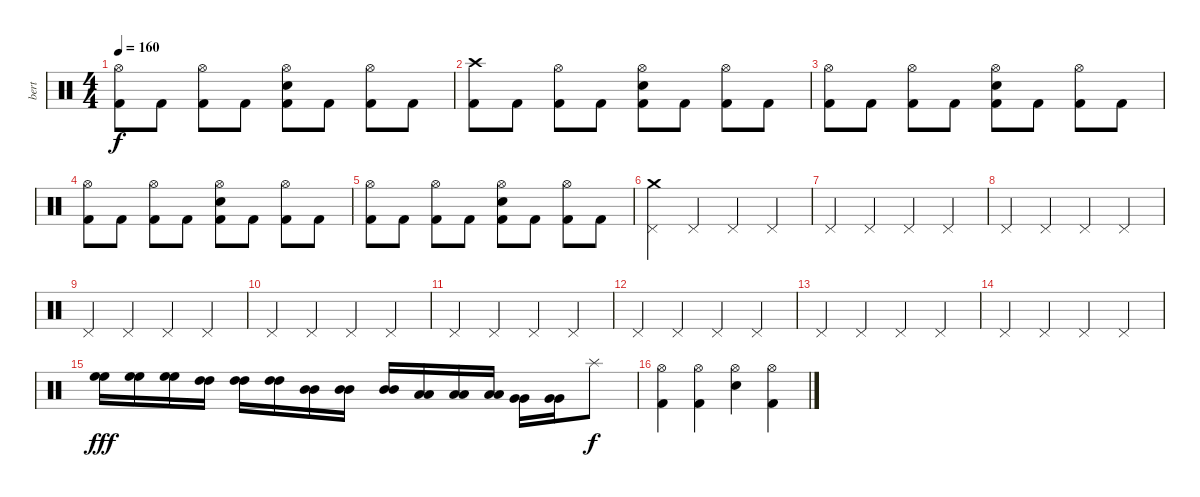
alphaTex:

\track ("bert" "bert") {instrument percussion}
\staff {score}
\articulation defaults
\ts (4 4)
\tempo 160
\clef neutral
\ks c
("Hi-Hat (open)" "Kick (hit) 2").8{dy f} "Kick (hit) 2".8 ("Hi-Hat (open)" "Kick (hit) 2").8 "Kick (hit) 2".8 ("Hi-Hat (open)" "Snare (hit) 2" "Kick (hit) 2").8 "Kick (hit) 2".8 ("Hi-Hat (open)" "Kick (hit) 2").8 "Kick (hit) 2".8 |
("Crash high (hit)" "Kick (hit) 2").8 "Kick (hit) 2".8 ("Hi-Hat (open)" "Kick (hit) 2").8 "Kick (hit) 2".8 ("Hi-Hat (open)" "Snare (hit) 2" "Kick (hit) 2").8 "Kick (hit) 2".8 ("Hi-Hat (open)" "Kick (hit) 2").8 "Kick (hit) 2".8 |
("Hi-Hat (open)" "Kick (hit) 2").8 "Kick (hit) 2".8 ("Hi-Hat (open)" "Kick (hit) 2").8 "Kick (hit) 2".8 ("Hi-Hat (open)" "Snare (hit) 2" "Kick (hit) 2").8 "Kick (hit) 2".8 ("Hi-Hat (open)" "Kick (hit) 2").8 "Kick (hit) 2".8 |
("Hi-Hat (open)" "Kick (hit) 2").8 "Kick (hit) 2".8 ("Hi-Hat (open)" "Kick (hit) 2").8 "Kick (hit) 2".8 ("Hi-Hat (open)" "Snare (hit) 2" "Kick (hit) 2").8 "Kick (hit) 2".8 ("Hi-Hat (open)" "Kick (hit) 2").8 "Kick (hit) 2".8 |
("Hi-Hat (open)" "Kick (hit) 2").8 "Kick (hit) 2".8 ("Hi-Hat (open)" "Kick (hit) 2").8 "Kick (hit) 2".8 ("Hi-Hat (open)" "Snare (hit) 2" "Kick (hit) 2").8 "Kick (hit) 2".8 ("Hi-Hat (open)" "Kick (hit) 2").8 "Kick (hit) 2".8 |
("Crash medium (hit)" "Pedal Hi-Hat (hit)").4 "Pedal Hi-Hat (hit)".4 "Pedal Hi-Hat (hit)".4 "Pedal Hi-Hat (hit)".4 |
"Pedal Hi-Hat (hit)".4 "Pedal Hi-Hat (hit)".4 "Pedal Hi-Hat (hit)".4 "Pedal Hi-Hat (hit)".4 |
"Pedal Hi-Hat (hit)".4 "Pedal Hi-Hat (hit)".4 "Pedal Hi-Hat (hit)".4 "Pedal Hi-Hat (hit)".4 |
"Pedal Hi-Hat (hit)".4 "Pedal Hi-Hat (hit)".4 "Pedal Hi-Hat (hit)".4 "Pedal Hi-Hat (hit)".4 |
"Pedal Hi-Hat (hit)".4 "Pedal Hi-Hat (hit)".4 "Pedal Hi-Hat (hit)".4 "Pedal Hi-Hat (hit)".4 |
"Pedal Hi-Hat (hit)".4 "Pedal Hi-Hat (hit)".4 "Pedal Hi-Hat (hit)".4 "Pedal Hi-Hat (hit)".4 |
"Pedal Hi-Hat (hit)".4 "Pedal Hi-Hat (hit)".4 "Pedal Hi-Hat (hit)".4 "Pedal Hi-Hat (hit)".4 |
"Pedal Hi-Hat (hit)".4 "Pedal Hi-Hat (hit)".4 "Pedal Hi-Hat (hit)".4 "Pedal Hi-Hat (hit)".4 |
"Pedal Hi-Hat (hit)".4 "Pedal Hi-Hat (hit)".4 "Pedal Hi-Hat (hit)".4 "Pedal Hi-Hat (hit)".4 |
("High Floor Tom (hit)" "High Floor Tom (hit)").16{dy fff} ("High Floor Tom (hit)" "High Floor Tom (hit)").16 ("High Floor Tom (hit)" "High Floor Tom (hit)").16 ("High Tom (hit)" "High Tom (hit)").16 ("High Tom (hit)" "High Tom (hit)").16 ("High Tom (hit)" "High Tom (hit)").16 ("Mid Tom (hit)" "Mid Tom (hit)").16 ("Mid Tom (hit)" "Mid Tom (hit)").16 ("Mid Tom (hit)" "Mid Tom (hit)").16 ("Low Tom (hit)" "Low Tom (hit)").16 ("Low Tom (hit)" "Low Tom (hit)").16 ("Low Tom (hit)" "Low Tom (hit)").16 ("Very Low Tom (hit)" "Very Low Tom (hit)").16 ("Very Low Tom (hit)" "Very Low Tom (hit)").16 "Splash (hit)".8{dy f} |
("Hi-Hat (open)" "Kick (hit) 2").4 ("Hi-Hat (open)" "Kick (hit) 2").4 ("Hi-Hat (open)" "Snare (hit) 2").4 ("Hi-Hat (open)" "Kick (hit) 2").4
